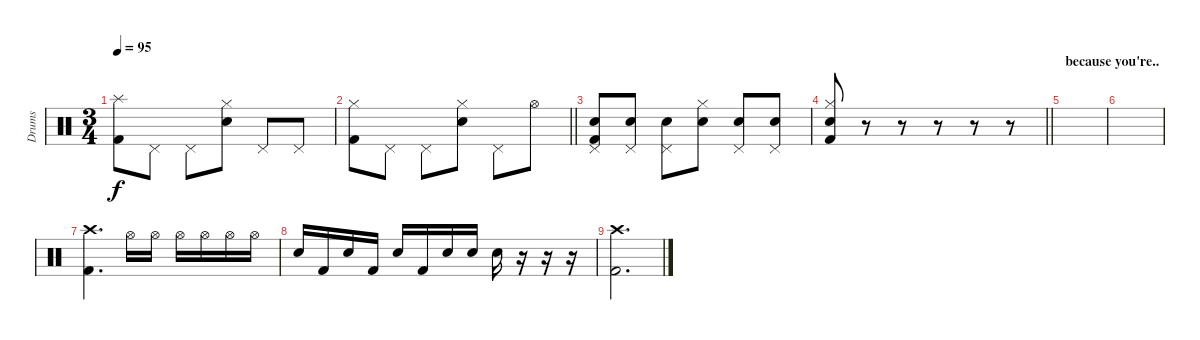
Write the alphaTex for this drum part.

\track ("Drums" "Drums") {instrument percussion}
\staff {score}
\articulation defaults
\ts (3 4)
\tempo 95
\clef neutral
\ks c
("Splash (hit)" "Kick (hit) 2").8{dy f} "Pedal Hi-Hat (hit)".8 "Pedal Hi-Hat (hit)".8 ("Hi-Hat (closed)" "Snare (hit) 2").8 "Pedal Hi-Hat (hit)".8 "Pedal Hi-Hat (hit)".8 |
\barLineRight lightlight
("Hi-Hat (closed)" "Kick (hit) 2").8 "Pedal Hi-Hat (hit)".8 "Pedal Hi-Hat (hit)".8 ("Hi-Hat (closed)" "Snare (hit) 2").8 "Pedal Hi-Hat (hit)".8 "Hi-Hat (open)".8 |
("Pedal Hi-Hat (hit)" "Snare (hit) 2" "Kick (hit) 2").8 ("Pedal Hi-Hat (hit)" "Snare (hit) 2").8 ("Pedal Hi-Hat (hit)" "Snare (hit) 2").8 ("Hi-Hat (closed)" "Snare (hit) 2").8 ("Pedal Hi-Hat (hit)" "Snare (hit) 2").8 ("Pedal Hi-Hat (hit)" "Snare (hit) 2").8 |
\barLineRight lightlight
("Hi-Hat (closed)" "Snare (hit) 2" "Kick (hit) 2").8 r.8 r.8 r.8 r.8 r.8 |
\section ("" "because you're..")
|
|
("Crash high (hit)" "Kick (hit) 2").4{d} "Hi-Hat (open)".16 "Hi-Hat (open)".16 "Hi-Hat (open)".16 "Hi-Hat (open)".16 "Hi-Hat (open)".16 "Hi-Hat (open)".16 |
"Snare (hit) 2".16 "Kick (hit) 2".16 "Snare (hit) 2".16 "Kick (hit) 2".16 "Snare (hit) 2".16 "Kick (hit) 2".16 "Snare (hit) 2".16 "Snare (hit) 2".16 "Snare (hit) 2".16 r.16 r.16 r.16 |
("Crash high (hit)" "Kick (hit) 2").2{d}
